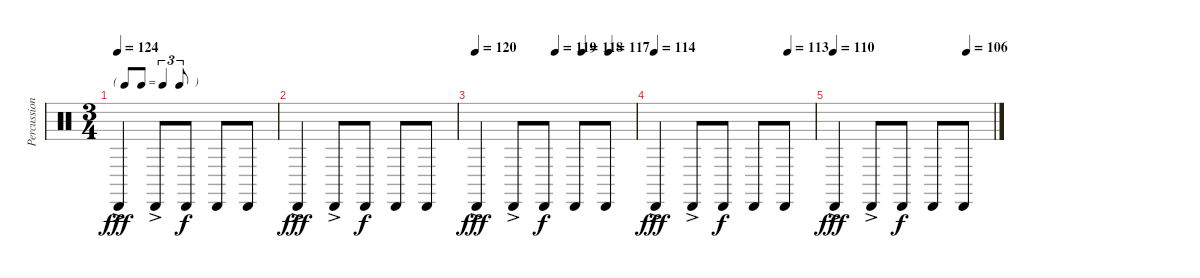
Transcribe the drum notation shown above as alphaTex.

\track ("Percussion" "Percussion") {instrument percussion}
\staff {score}
\articulation defaults
\ts (3 4)
\tf triplet8th
\tempo 124
\clef neutral
\ks c "Cabasa (hit)"{ac}.4{dy fff} "Cabasa (hit)"{ac}.8 "Cabasa (hit)".8{dy f} "Cabasa (hit)".8 "Cabasa (hit)".8
|
"Cabasa (hit)"{ac}.4{dy fff} "Cabasa (hit)"{ac}.8 "Cabasa (hit)".8{dy f} "Cabasa (hit)".8 "Cabasa (hit)".8 |
\tempo 120
\tempo (119 0.5)
\tempo (118 0.6666666666666666)
\tempo (117 0.8333333333333334)
"Cabasa (hit)"{ac}.4{dy fff volume 10} "Cabasa (hit)"{ac}.8 "Cabasa (hit)".8{dy f} "Cabasa (hit)".8 "Cabasa (hit)".8 |
\tempo 114
\tempo (113 0.8333333333333334)
"Cabasa (hit)"{ac}.4{dy fff} "Cabasa (hit)"{ac}.8 "Cabasa (hit)".8{dy f} "Cabasa (hit)".8 "Cabasa (hit)".8 |
\tempo 110
\tempo (106 0.8333333333333334)
"Cabasa (hit)"{ac}.4{dy fff} "Cabasa (hit)"{ac}.8 "Cabasa (hit)".8{dy f} "Cabasa (hit)".8 "Cabasa (hit)".8
